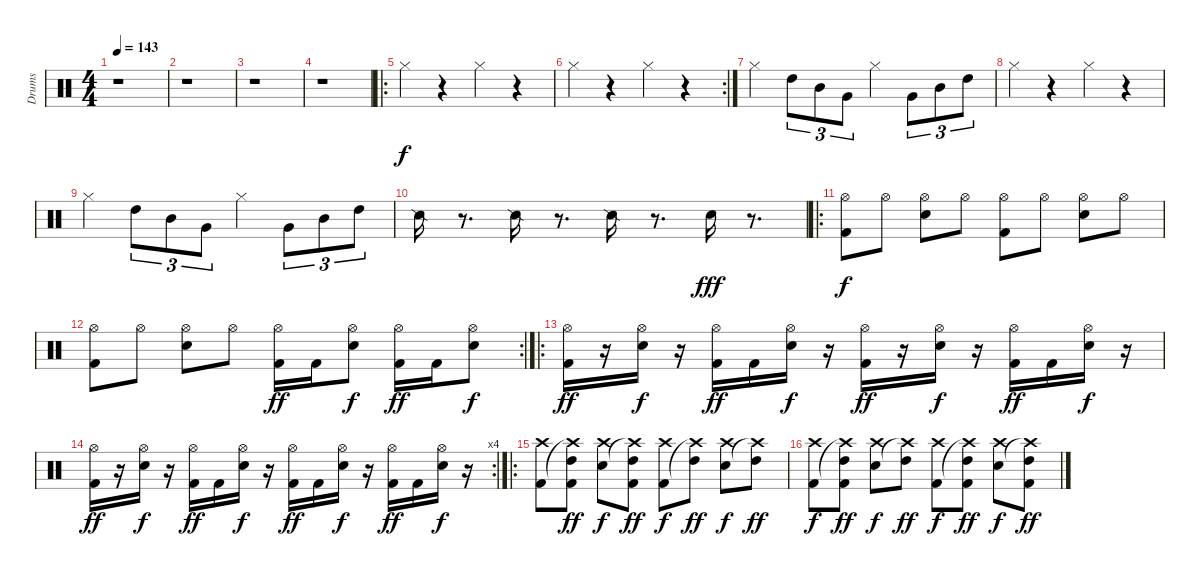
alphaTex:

\track ("Drums" "Drums") {instrument percussion}
\staff {score}
\articulation defaults
\ts (4 4)
\tempo 143
\clef neutral
\ks c
r.1{dy f} |
r.1 |
r.1 |
r.1 |
\ro "Hi-Hat (closed)".4
r.4 "Hi-Hat (closed)".4 r.4 |
\rc 2 "Hi-Hat (closed)".4
r.4 "Hi-Hat (closed)".4 r.4 |
"Hi-Hat (closed)".4 "High Tom (hit)".8{tu (3 2)} "Mid Tom (hit)".8{tu (3 2)} "Very Low Tom (hit)".8{tu (3 2)} "Hi-Hat (closed)".4 "Very Low Tom (hit)".8{tu (3 2)} "Mid Tom (hit)".8{tu (3 2)} "High Tom (hit)".8{tu (3 2)} |
"Hi-Hat (closed)".4 r.4 "Hi-Hat (closed)".4 r.4 |
"Hi-Hat (closed)".4 "High Tom (hit)".8{tu (3 2)} "Mid Tom (hit)".8{tu (3 2)} "Very Low Tom (hit)".8{tu (3 2)} "Hi-Hat (closed)".4 "Very Low Tom (hit)".8{tu (3 2)} "Mid Tom (hit)".8{tu (3 2)} "High Tom (hit)".8{tu (3 2)} |
"Snare (side stick) 2".16 r.8{d} "Snare (side stick) 2".16 r.8{d} "Snare (side stick) 2".16 r.8{d} "Electric Snare (hit)".16{dy fff} r.8{d} |
\ro
("Hi-Hat (open)" "Kick (hit) 2").8{dy f} "Hi-Hat (open)".8 ("Hi-Hat (open)" "Electric Snare (hit)").8 "Hi-Hat (open)".8 ("Hi-Hat (open)" "Kick (hit) 2").8 "Hi-Hat (open)".8 ("Hi-Hat (open)" "Electric Snare (hit)").8 "Hi-Hat (open)".8 |
\rc 2
("Hi-Hat (open)" "Kick (hit) 2").8 "Hi-Hat (open)".8 ("Hi-Hat (open)" "Electric Snare (hit)").8 "Hi-Hat (open)".8 ("Hi-Hat (open)" "Kick (hit) 2").16{dy ff} "Kick (hit) 2".16 ("Hi-Hat (open)" "Electric Snare (hit)").8{dy f} ("Hi-Hat (open)" "Kick (hit) 2").16{dy ff} "Kick (hit) 2".16 ("Electric Snare (hit)" "Hi-Hat (open)").8{dy f} |
\ro
("Hi-Hat (open)" "Kick (hit) 2").16{dy ff} r.16 ("Hi-Hat (open)" "Electric Snare (hit)").16{dy f} r.16 ("Hi-Hat (open)" "Kick (hit) 2").16{dy ff} "Kick (hit) 2".16 ("Hi-Hat (open)" "Electric Snare (hit)").16{dy f} r.16 ("Hi-Hat (open)" "Kick (hit) 2").16{dy ff} r.16 ("Hi-Hat (open)" "Electric Snare (hit)").16{dy f} r.16 ("Hi-Hat (open)" "Kick (hit) 2").16{dy ff} "Kick (hit) 2".16 ("Hi-Hat (open)" "Electric Snare (hit)").16{dy f} r.16 |
\rc 4
("Hi-Hat (open)" "Kick (hit) 2").16{dy ff} r.16 ("Hi-Hat (open)" "Electric Snare (hit)").16{dy f} r.16 ("Hi-Hat (open)" "Kick (hit) 2").16{dy ff} "Kick (hit) 2".16 ("Hi-Hat (open)" "Electric Snare (hit)").16{dy f} r.16 ("Hi-Hat (open)" "Kick (hit) 2").16{dy ff} "Kick (hit) 2".16 ("Hi-Hat (open)" "Electric Snare (hit)").16{dy f} r.16 ("Hi-Hat (open)" "Kick (hit) 2").16{dy ff} "Kick (hit) 2".16 ("Hi-Hat (open)" "Electric Snare (hit)").16{dy f} r.16 |
\ro
("Crash high (hit)" "Kick (hit) 2").8 ("High Tom (hit)" "Crash high (hit)"{t} "Kick (hit) 2").8{dy ff} ("Crash high (hit)" "Electric Snare (hit)").8{dy f} ("High Tom (hit)" "Crash high (hit)"{t} "Kick (hit) 2").8{dy ff} ("Crash high (hit)" "Kick (hit) 2").8{dy f} ("High Tom (hit)" "Crash high (hit)"{t}).8{dy ff} ("Crash high (hit)" "Electric Snare (hit)").8{dy f} ("High Tom (hit)" "Crash high (hit)"{t}).8{dy ff} |
("Crash high (hit)" "Kick (hit) 2").8{dy f} ("High Tom (hit)" "Crash high (hit)"{t} "Kick (hit) 2").8{dy ff} ("Crash high (hit)" "Electric Snare (hit)").8{dy f} ("High Tom (hit)" "Crash high (hit)"{t}).8{dy ff} ("Crash high (hit)" "Kick (hit) 2").8{dy f} ("High Tom (hit)" "Crash high (hit)"{t} "Kick (hit) 2").8{dy ff} ("Crash high (hit)" "Electric Snare (hit)").8{dy f} ("High Tom (hit)" "Crash high (hit)"{t} "Kick (hit) 2").8{dy ff}
